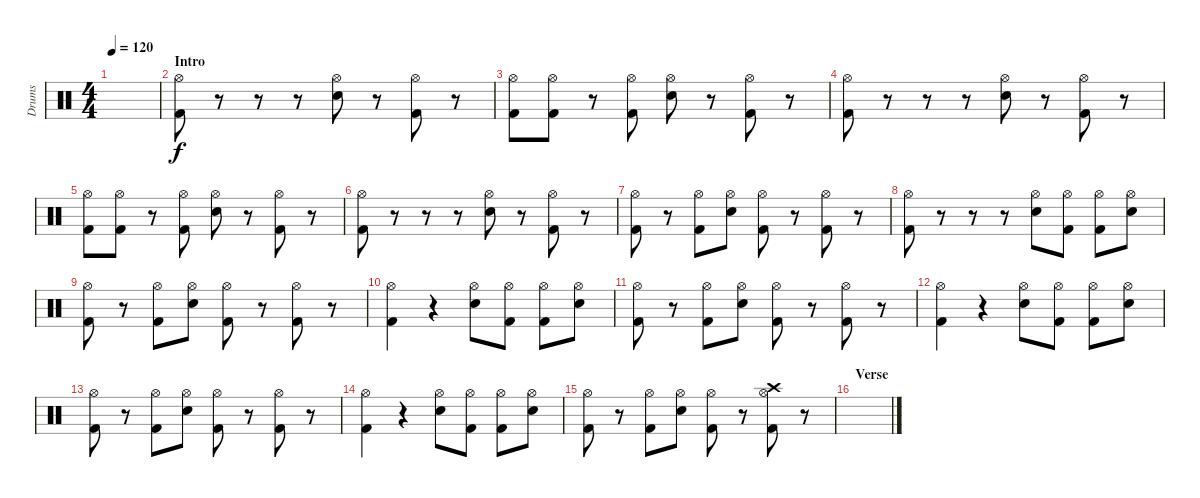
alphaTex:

\track ("Drums" "Drums") {instrument percussion}
\staff {score}
\articulation defaults
\ts (4 4)
\tempo 120
\clef neutral
\ks c
|
\section ("" "Intro")
("Hi-Hat (open)" "Kick (hit) 2").8 r.8 r.8 r.8 ("Hi-Hat (open)" "Electric Snare (hit)").8 r.8 ("Hi-Hat (open)" "Kick (hit) 2").8 r.8 |
("Hi-Hat (open)" "Kick (hit) 2").8 ("Hi-Hat (open)" "Kick (hit) 2").8 r.8 ("Hi-Hat (open)" "Kick (hit) 2").8 ("Hi-Hat (open)" "Electric Snare (hit)").8 r.8 ("Hi-Hat (open)" "Kick (hit) 2").8 r.8 |
("Hi-Hat (open)" "Kick (hit) 2").8 r.8 r.8 r.8 ("Hi-Hat (open)" "Electric Snare (hit)").8 r.8 ("Hi-Hat (open)" "Kick (hit) 2").8 r.8 |
("Hi-Hat (open)" "Kick (hit) 2").8 ("Hi-Hat (open)" "Kick (hit) 2").8 r.8 ("Hi-Hat (open)" "Kick (hit) 2").8 ("Hi-Hat (open)" "Electric Snare (hit)").8 r.8 ("Hi-Hat (open)" "Kick (hit) 2").8 r.8 |
("Hi-Hat (open)" "Kick (hit) 2").8 r.8 r.8 r.8 ("Hi-Hat (open)" "Electric Snare (hit)").8 r.8 ("Hi-Hat (open)" "Kick (hit) 2").8 r.8 |
("Hi-Hat (open)" "Kick (hit) 2").8 r.8 ("Hi-Hat (open)" "Kick (hit) 2").8 ("Hi-Hat (open)" "Electric Snare (hit)").8 ("Hi-Hat (open)" "Kick (hit) 2").8 r.8 ("Hi-Hat (open)" "Kick (hit) 2").8 r.8 |
("Hi-Hat (open)" "Kick (hit) 2").8 r.8 r.8 r.8 ("Hi-Hat (open)" "Electric Snare (hit)").8 ("Hi-Hat (open)" "Kick (hit) 2").8 ("Hi-Hat (open)" "Kick (hit) 2").8 ("Hi-Hat (open)" "Electric Snare (hit)").8 |
("Hi-Hat (open)" "Kick (hit) 2").8 r.8 ("Hi-Hat (open)" "Kick (hit) 2").8 ("Hi-Hat (open)" "Electric Snare (hit)").8 ("Hi-Hat (open)" "Kick (hit) 2").8 r.8 ("Hi-Hat (open)" "Kick (hit) 2").8 r.8 |
("Hi-Hat (open)" "Kick (hit) 2").4 r.4 ("Hi-Hat (open)" "Electric Snare (hit)").8 ("Hi-Hat (open)" "Kick (hit) 2").8 ("Hi-Hat (open)" "Kick (hit) 2").8 ("Hi-Hat (open)" "Electric Snare (hit)").8 |
("Hi-Hat (open)" "Kick (hit) 2").8 r.8 ("Hi-Hat (open)" "Kick (hit) 2").8 ("Hi-Hat (open)" "Electric Snare (hit)").8 ("Hi-Hat (open)" "Kick (hit) 2").8 r.8 ("Hi-Hat (open)" "Kick (hit) 2").8 r.8 |
("Hi-Hat (open)" "Kick (hit) 2").4 r.4 ("Hi-Hat (open)" "Electric Snare (hit)").8 ("Hi-Hat (open)" "Kick (hit) 2").8 ("Hi-Hat (open)" "Kick (hit) 2").8 ("Hi-Hat (open)" "Electric Snare (hit)").8 |
("Hi-Hat (open)" "Kick (hit) 2").8 r.8 ("Hi-Hat (open)" "Kick (hit) 2").8 ("Hi-Hat (open)" "Electric Snare (hit)").8 ("Hi-Hat (open)" "Kick (hit) 2").8 r.8 ("Hi-Hat (open)" "Kick (hit) 2").8 r.8 |
("Hi-Hat (open)" "Kick (hit) 2").4 r.4 ("Hi-Hat (open)" "Electric Snare (hit)").8 ("Hi-Hat (open)" "Kick (hit) 2").8 ("Hi-Hat (open)" "Kick (hit) 2").8 ("Hi-Hat (open)" "Electric Snare (hit)").8 |
("Hi-Hat (open)" "Kick (hit) 2").8 r.8 ("Hi-Hat (open)" "Kick (hit) 2").8 ("Hi-Hat (open)" "Electric Snare (hit)").8 ("Hi-Hat (open)" "Kick (hit) 2").8 r.8 ("Crash high (hit)" "Hi-Hat (open)" "Kick (hit) 2").8 r.8 |
\section ("" "Verse")
